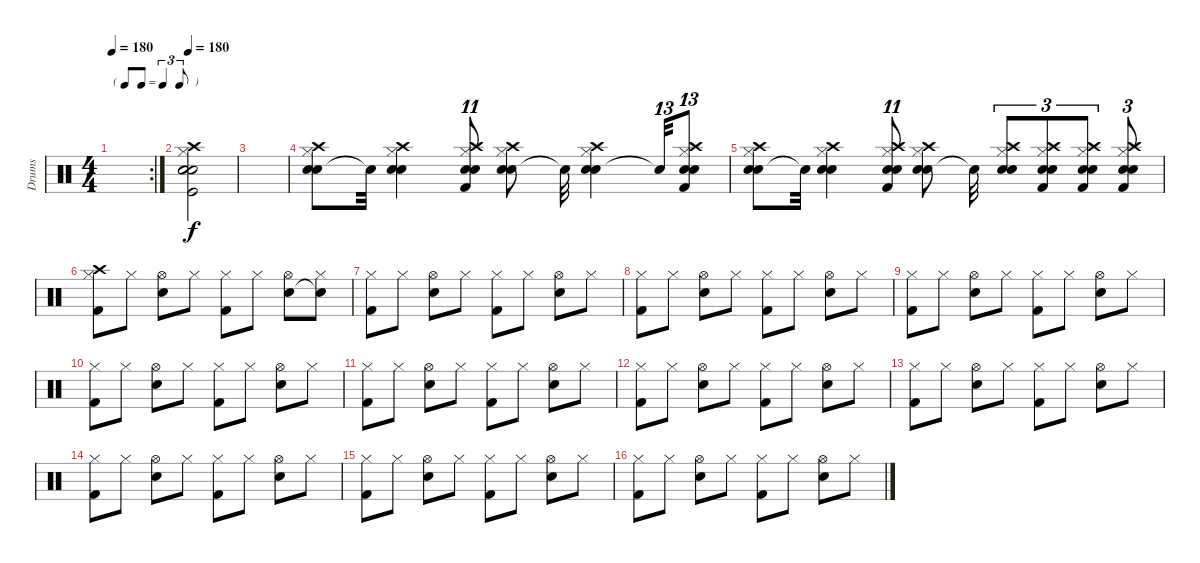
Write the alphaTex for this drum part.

\track ("Drums" "Drums") {instrument percussion}
\staff {score}
\articulation defaults
\rc 2
\ts (4 4)
\tf triplet8th
\tempo 180
\clef neutral
\ks c
|
\tempo 180
("Snare (hit) 2" "Kick (hit)" "Hi-Hat (closed)" "Crash high (hit)" "Snare (hit)" "Electric Snare (hit)").2 |
|
("Snare (hit) 2" "Hi-Hat (closed)" "Crash high (hit)" "Electric Snare (hit)").8 "Snare (hit)"{t}.32 ("Snare (hit) 2" "Hi-Hat (closed)" "Crash high (hit)" "Electric Snare (hit)").4 ("Snare (hit) 2" "Kick (hit) 2" "Hi-Hat (closed)" "Crash high (hit)" "Electric Snare (hit)").8{tu (11 8)} ("Snare (hit) 2" "Hi-Hat (closed)" "Crash high (hit)" "Electric Snare (hit)").8 "Snare (hit)"{t}.32 ("Snare (hit) 2" "Hi-Hat (closed)" "Crash high (hit)" "Electric Snare (hit)").4 "Snare (hit)"{t}.32{tu (13 8)} ("Snare (hit) 2" "Kick (hit) 2" "Hi-Hat (closed)" "Crash high (hit)" "Electric Snare (hit)").8{tu (13 8)} |
("Snare (hit) 2" "Hi-Hat (closed)" "Crash high (hit)" "Electric Snare (hit)").8 "Snare (hit)"{t}.32 ("Snare (hit) 2" "Hi-Hat (closed)" "Crash high (hit)" "Electric Snare (hit)").4 ("Snare (hit) 2" "Kick (hit) 2" "Hi-Hat (closed)" "Crash high (hit)" "Electric Snare (hit)").8{tu (11 8)} ("Snare (hit) 2" "Hi-Hat (closed)" "Crash high (hit)" "Electric Snare (hit)").8 "Snare (hit)"{t}.32 ("Snare (hit) 2" "Hi-Hat (closed)" "Crash high (hit)" "Electric Snare (hit)").8{tu (3 2)} ("Snare (hit) 2" "Hi-Hat (closed)" "Crash high (hit)" "Kick (hit) 2" "Electric Snare (hit)").8{tu (3 2)} ("Snare (hit) 2" "Hi-Hat (closed)" "Crash high (hit)" "Kick (hit) 2" "Electric Snare (hit)").8{tu (3 2)} ("Snare (hit) 2" "Hi-Hat (closed)" "Crash high (hit)" "Kick (hit) 2" "Electric Snare (hit)").8{tu (3 2)} |
("Hi-Hat (closed)" "Kick (hit) 2" "Crash high (hit)").8 "Hi-Hat (closed)".8 ("Hi-Hat (open)" "Snare (hit) 2").8 "Hi-Hat (closed)".8 ("Hi-Hat (closed)" "Kick (hit) 2").8 "Hi-Hat (closed)".8 ("Hi-Hat (open)" "Snare (hit) 2").8 ("Hi-Hat (closed)" "Snare (hit)"{t}).8 |
("Hi-Hat (closed)" "Kick (hit) 2").8 "Hi-Hat (closed)".8 ("Hi-Hat (open)" "Snare (hit) 2").8 "Hi-Hat (closed)".8 ("Hi-Hat (closed)" "Kick (hit) 2").8 "Hi-Hat (closed)".8 ("Hi-Hat (open)" "Snare (hit) 2").8 "Hi-Hat (closed)".8 |
("Hi-Hat (closed)" "Kick (hit) 2").8 "Hi-Hat (closed)".8 ("Hi-Hat (open)" "Snare (hit) 2").8 "Hi-Hat (closed)".8 ("Hi-Hat (closed)" "Kick (hit) 2").8 "Hi-Hat (closed)".8 ("Hi-Hat (open)" "Snare (hit) 2").8 "Hi-Hat (closed)".8 |
("Hi-Hat (closed)" "Kick (hit) 2").8 "Hi-Hat (closed)".8 ("Hi-Hat (open)" "Snare (hit) 2").8 "Hi-Hat (closed)".8 ("Hi-Hat (closed)" "Kick (hit) 2").8 "Hi-Hat (closed)".8 ("Hi-Hat (open)" "Snare (hit) 2").8 "Hi-Hat (closed)".8 |
("Hi-Hat (closed)" "Kick (hit) 2").8 "Hi-Hat (closed)".8 ("Hi-Hat (open)" "Snare (hit) 2").8 "Hi-Hat (closed)".8 ("Hi-Hat (closed)" "Kick (hit) 2").8 "Hi-Hat (closed)".8 ("Hi-Hat (open)" "Snare (hit) 2").8 "Hi-Hat (closed)".8 |
("Hi-Hat (closed)" "Kick (hit) 2").8 "Hi-Hat (closed)".8 ("Hi-Hat (open)" "Snare (hit) 2").8 "Hi-Hat (closed)".8 ("Hi-Hat (closed)" "Kick (hit) 2").8 "Hi-Hat (closed)".8 ("Hi-Hat (open)" "Snare (hit) 2").8 "Hi-Hat (closed)".8 |
("Hi-Hat (closed)" "Kick (hit) 2").8 "Hi-Hat (closed)".8 ("Hi-Hat (open)" "Snare (hit) 2").8 "Hi-Hat (closed)".8 ("Hi-Hat (closed)" "Kick (hit) 2").8 "Hi-Hat (closed)".8 ("Hi-Hat (open)" "Snare (hit) 2").8 "Hi-Hat (closed)".8 |
("Hi-Hat (closed)" "Kick (hit) 2").8 "Hi-Hat (closed)".8 ("Hi-Hat (open)" "Snare (hit) 2").8 "Hi-Hat (closed)".8 ("Hi-Hat (closed)" "Kick (hit) 2").8 "Hi-Hat (closed)".8 ("Hi-Hat (open)" "Snare (hit) 2").8 "Hi-Hat (closed)".8 |
("Hi-Hat (closed)" "Kick (hit) 2").8 "Hi-Hat (closed)".8 ("Hi-Hat (open)" "Snare (hit) 2").8 "Hi-Hat (closed)".8 ("Hi-Hat (closed)" "Kick (hit) 2").8 "Hi-Hat (closed)".8 ("Hi-Hat (open)" "Snare (hit) 2").8 "Hi-Hat (closed)".8 |
("Hi-Hat (closed)" "Kick (hit) 2").8 "Hi-Hat (closed)".8 ("Hi-Hat (open)" "Snare (hit) 2").8 "Hi-Hat (closed)".8 ("Hi-Hat (closed)" "Kick (hit) 2").8 "Hi-Hat (closed)".8 ("Hi-Hat (open)" "Snare (hit) 2").8 "Hi-Hat (closed)".8 |
("Hi-Hat (closed)" "Kick (hit) 2").8 "Hi-Hat (closed)".8 ("Hi-Hat (open)" "Snare (hit) 2").8 "Hi-Hat (closed)".8 ("Hi-Hat (closed)" "Kick (hit) 2").8 "Hi-Hat (closed)".8 ("Hi-Hat (open)" "Snare (hit) 2").8 "Hi-Hat (closed)".8
